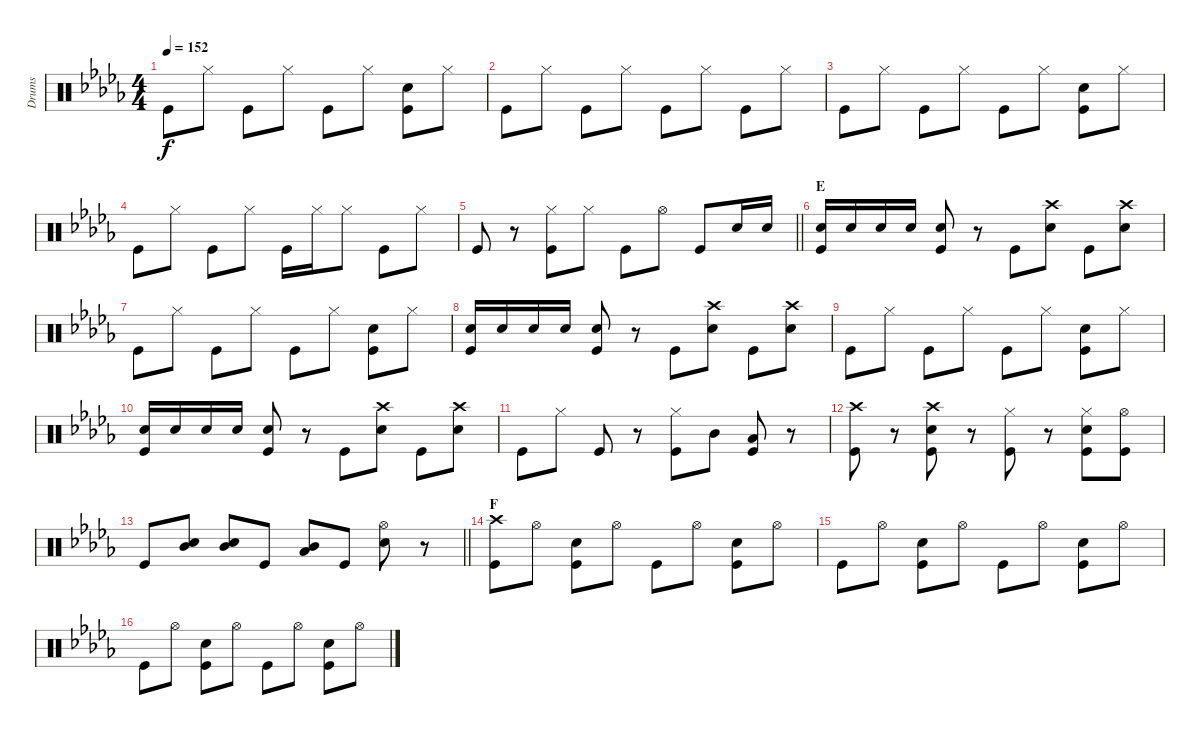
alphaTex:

\track ("Drums" "Drums") {instrument percussion}
\staff {score}
\articulation defaults
\ts (4 4)
\tempo 152
\clef neutral
\ks db "Kick (hit)".8{dy f} "Hi-Hat (closed)".8 "Kick (hit)".8 "Hi-Hat (closed)".8 "Kick (hit)".8 "Hi-Hat (closed)".8
("Snare (hit) 2" "Kick (hit)").8 "Hi-Hat (closed)".8 |
"Kick (hit)".8 "Hi-Hat (closed)".8 "Kick (hit)".8 "Hi-Hat (closed)".8 "Kick (hit)".8 "Hi-Hat (closed)".8 "Kick (hit)".8 "Hi-Hat (closed)".8 |
"Kick (hit)".8 "Hi-Hat (closed)".8 "Kick (hit)".8 "Hi-Hat (closed)".8 "Kick (hit)".8 "Hi-Hat (closed)".8 ("Snare (hit) 2" "Kick (hit)").8 "Hi-Hat (closed)".8 |
"Kick (hit)".8 "Hi-Hat (closed)".8 "Kick (hit)".8 "Hi-Hat (closed)".8 "Kick (hit)".16 "Hi-Hat (closed)".16 "Hi-Hat (closed)".8 "Kick (hit)".8 "Hi-Hat (closed)".8 |
\barLineRight lightlight "Kick (hit)".8
r.8 ("Hi-Hat (closed)" "Kick (hit)").8 "Hi-Hat (closed)".8 "Kick (hit)".8 "Hi-Hat (open)".8 "Kick (hit)".8 "Snare (hit) 2".16 "Snare (hit) 2".16 |
\section ("" "E")
("Snare (hit) 2" "Kick (hit)").16 "Snare (hit) 2".16 "Snare (hit) 2".16 "Snare (hit) 2".16 ("Snare (hit) 2" "Kick (hit)").8 r.8 "Kick (hit)".8 ("Crash high (hit)" "Snare (hit) 2").8 "Kick (hit)".8 ("Crash high (hit)" "Snare (hit) 2").8 |
"Kick (hit)".8 "Hi-Hat (closed)".8 "Kick (hit)".8 "Hi-Hat (closed)".8 "Kick (hit)".8 "Hi-Hat (closed)".8 ("Snare (hit) 2" "Kick (hit)").8 "Hi-Hat (closed)".8 |
("Snare (hit) 2" "Kick (hit)").16 "Snare (hit) 2".16 "Snare (hit) 2".16 "Snare (hit) 2".16 ("Snare (hit) 2" "Kick (hit)").8 r.8 "Kick (hit)".8 ("Crash high (hit)" "Snare (hit) 2").8 "Kick (hit)".8 ("Crash high (hit)" "Snare (hit) 2").8 |
"Kick (hit)".8 "Hi-Hat (closed)".8 "Kick (hit)".8 "Hi-Hat (closed)".8 "Kick (hit)".8 "Hi-Hat (closed)".8 ("Snare (hit) 2" "Kick (hit)").8 "Hi-Hat (closed)".8 |
("Snare (hit) 2" "Kick (hit)").16 "Snare (hit) 2".16 "Snare (hit) 2".16 "Snare (hit) 2".16 ("Snare (hit) 2" "Kick (hit)").8 r.8 "Kick (hit)".8 ("Crash high (hit)" "Snare (hit) 2").8 "Kick (hit)".8 ("Crash high (hit)" "Snare (hit) 2").8 |
"Kick (hit)".8 "Hi-Hat (closed)".8 "Kick (hit)".8 r.8 ("Hi-Hat (closed)" "Kick (hit)").8 "Mid Tom (hit)".8 ("Low Tom (hit)" "Kick (hit)").8 r.8 |
("Crash high (hit)" "Kick (hit)").8 r.8 ("Crash high (hit)" "Snare (hit) 2" "Kick (hit)").8 r.8 ("Hi-Hat (closed)" "Kick (hit)").8 r.8 ("Hi-Hat (closed)" "Snare (hit) 2" "Kick (hit)").8 ("Hi-Hat (open)" "Kick (hit)").8 |
\barLineRight lightlight "Kick (hit)".8
("Mid Tom (hit)" "Snare (hit) 2").8 ("Mid Tom (hit)" "Snare (hit) 2").8 "Kick (hit)".8 ("Mid Tom (hit)" "Low Tom (hit)").8 "Kick (hit)".8 ("Hi-Hat (open)" "Snare (hit) 2").8 r.8 |
\section ("" "F")
("Crash high (hit)" "Kick (hit)").8 "Hi-Hat (open)".8 ("Snare (hit) 2" "Kick (hit)").8 "Hi-Hat (open)".8 "Kick (hit)".8 "Hi-Hat (open)".8 ("Snare (hit) 2" "Kick (hit)").8 "Hi-Hat (open)".8 |
"Kick (hit)".8 "Hi-Hat (open)".8 ("Snare (hit) 2" "Kick (hit)").8 "Hi-Hat (open)".8 "Kick (hit)".8 "Hi-Hat (open)".8 ("Snare (hit) 2" "Kick (hit)").8 "Hi-Hat (open)".8 |
"Kick (hit)".8 "Hi-Hat (open)".8 ("Snare (hit) 2" "Kick (hit)").8 "Hi-Hat (open)".8 "Kick (hit)".8 "Hi-Hat (open)".8 ("Snare (hit) 2" "Kick (hit)").8 "Hi-Hat (open)".8
